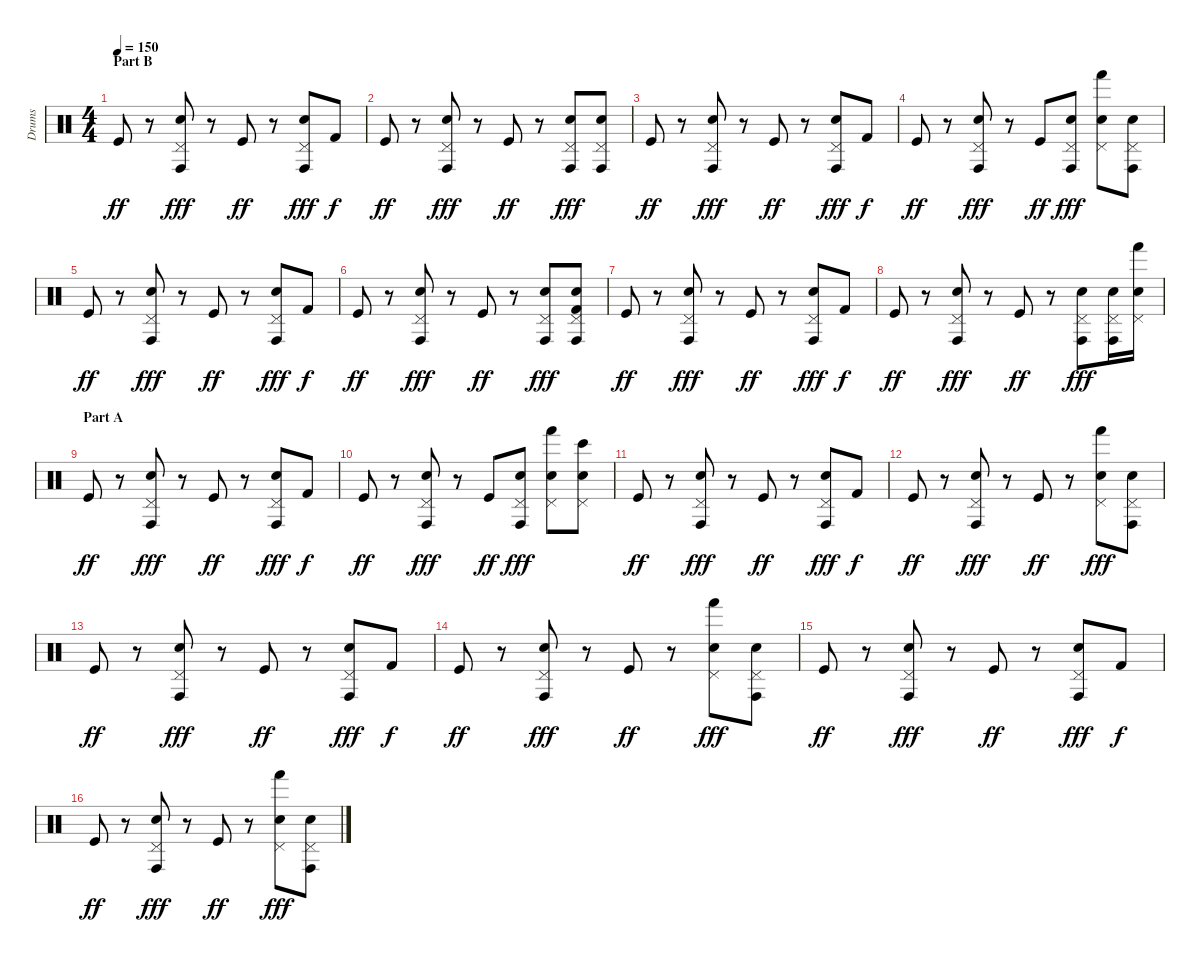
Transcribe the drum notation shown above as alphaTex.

\track ("Drums" "Drums") {instrument percussion}
\staff {score}
\articulation defaults
\ts (4 4)
\section ("" "Part B")
\tempo 150
\clef neutral
\ks c "Kick (hit)".8{dy ff}
r.8 ("Pedal Hi-Hat (hit)" "Conga high (hit)" "Electric Snare (hit)").8{dy fff} r.8 "Kick (hit)".8{dy ff} r.8 ("Pedal Hi-Hat (hit)" "Conga high (hit)" "Electric Snare (hit)").8{dy fff} "Kick (hit) 2".8{dy f} |
"Kick (hit)".8{dy ff} r.8 ("Pedal Hi-Hat (hit)" "Conga high (hit)" "Electric Snare (hit)").8{dy fff} r.8 "Kick (hit)".8{dy ff} r.8 ("Pedal Hi-Hat (hit)" "Conga high (hit)" "Electric Snare (hit)").8{dy fff} ("Pedal Hi-Hat (hit)" "Conga high (hit)" "Electric Snare (hit)").8 |
"Kick (hit)".8{dy ff} r.8 ("Pedal Hi-Hat (hit)" "Conga high (hit)" "Electric Snare (hit)").8{dy fff} r.8 "Kick (hit)".8{dy ff} r.8 ("Pedal Hi-Hat (hit)" "Conga high (hit)" "Electric Snare (hit)").8{dy fff} "Kick (hit) 2".8{dy f} |
"Kick (hit)".8{dy ff} r.8 ("Pedal Hi-Hat (hit)" "Conga high (hit)" "Electric Snare (hit)").8{dy fff} r.8 "Kick (hit)".8{dy ff} ("Pedal Hi-Hat (hit)" "Conga high (hit)" "Electric Snare (hit)").8{dy fff} ("Pedal Hi-Hat (hit)" "Hand (hit)" "Electric Snare (hit)").8 ("Pedal Hi-Hat (hit)" "Conga high (hit)" "Electric Snare (hit)").8 |
"Kick (hit)".8{dy ff} r.8 ("Pedal Hi-Hat (hit)" "Conga high (hit)" "Electric Snare (hit)").8{dy fff} r.8 "Kick (hit)".8{dy ff} r.8 ("Pedal Hi-Hat (hit)" "Conga high (hit)" "Electric Snare (hit)").8{dy fff} "Kick (hit) 2".8{dy f} |
"Kick (hit)".8{dy ff} r.8 ("Pedal Hi-Hat (hit)" "Conga high (hit)" "Electric Snare (hit)").8{dy fff} r.8 "Kick (hit)".8{dy ff} r.8 ("Pedal Hi-Hat (hit)" "Conga high (hit)" "Electric Snare (hit)").8{dy fff} ("Pedal Hi-Hat (hit)" "Conga high (hit)" "Electric Snare (hit)" "Kick (hit) 2").8 |
"Kick (hit)".8{dy ff} r.8 ("Pedal Hi-Hat (hit)" "Conga high (hit)" "Electric Snare (hit)").8{dy fff} r.8 "Kick (hit)".8{dy ff} r.8 ("Pedal Hi-Hat (hit)" "Conga high (hit)" "Electric Snare (hit)").8{dy fff} "Kick (hit) 2".8{dy f} |
"Kick (hit)".8{dy ff} r.8 ("Pedal Hi-Hat (hit)" "Conga high (hit)" "Electric Snare (hit)").8{dy fff} r.8 "Kick (hit)".8{dy ff} r.8 ("Pedal Hi-Hat (hit)" "Conga high (hit)" "Electric Snare (hit)").8{dy fff} ("Pedal Hi-Hat (hit)" "Conga high (hit)" "Electric Snare (hit)").16 ("Pedal Hi-Hat (hit)" "Hand (hit)" "Electric Snare (hit)").16 |
\section ("" "Part A")
"Kick (hit)".8{dy ff} r.8 ("Pedal Hi-Hat (hit)" "Conga high (hit)" "Electric Snare (hit)").8{dy fff} r.8 "Kick (hit)".8{dy ff} r.8 ("Pedal Hi-Hat (hit)" "Conga high (hit)" "Electric Snare (hit)").8{dy fff} "Kick (hit) 2".8{dy f} |
"Kick (hit)".8{dy ff} r.8 ("Pedal Hi-Hat (hit)" "Conga high (hit)" "Electric Snare (hit)").8{dy fff} r.8 "Kick (hit)".8{dy ff} ("Pedal Hi-Hat (hit)" "Conga high (hit)" "Electric Snare (hit)").8{dy fff} ("Pedal Hi-Hat (hit)" "Hand (hit)" "Electric Snare (hit)").8 ("Pedal Hi-Hat (hit)" "Bongo High (hit)" "Electric Snare (hit)").8 |
"Kick (hit)".8{dy ff} r.8 ("Pedal Hi-Hat (hit)" "Conga high (hit)" "Electric Snare (hit)").8{dy fff} r.8 "Kick (hit)".8{dy ff} r.8 ("Pedal Hi-Hat (hit)" "Conga high (hit)" "Electric Snare (hit)").8{dy fff} "Kick (hit) 2".8{dy f} |
"Kick (hit)".8{dy ff} r.8 ("Pedal Hi-Hat (hit)" "Conga high (hit)" "Electric Snare (hit)").8{dy fff} r.8 "Kick (hit)".8{dy ff} r.8 ("Pedal Hi-Hat (hit)" "Hand (hit)" "Electric Snare (hit)").8{dy fff} ("Pedal Hi-Hat (hit)" "Conga high (hit)" "Electric Snare (hit)").8 |
"Kick (hit)".8{dy ff} r.8 ("Pedal Hi-Hat (hit)" "Conga high (hit)" "Electric Snare (hit)").8{dy fff} r.8 "Kick (hit)".8{dy ff} r.8 ("Pedal Hi-Hat (hit)" "Conga high (hit)" "Electric Snare (hit)").8{dy fff} "Kick (hit) 2".8{dy f} |
"Kick (hit)".8{dy ff} r.8 ("Pedal Hi-Hat (hit)" "Conga high (hit)" "Electric Snare (hit)").8{dy fff} r.8 "Kick (hit)".8{dy ff} r.8 ("Pedal Hi-Hat (hit)" "Hand (hit)" "Electric Snare (hit)").8{dy fff} ("Pedal Hi-Hat (hit)" "Conga high (hit)" "Electric Snare (hit)").8 |
"Kick (hit)".8{dy ff} r.8 ("Pedal Hi-Hat (hit)" "Conga high (hit)" "Electric Snare (hit)").8{dy fff} r.8 "Kick (hit)".8{dy ff} r.8 ("Pedal Hi-Hat (hit)" "Conga high (hit)" "Electric Snare (hit)").8{dy fff} "Kick (hit) 2".8{dy f} |
"Kick (hit)".8{dy ff} r.8 ("Pedal Hi-Hat (hit)" "Conga high (hit)" "Electric Snare (hit)").8{dy fff} r.8 "Kick (hit)".8{dy ff} r.8 ("Pedal Hi-Hat (hit)" "Hand (hit)" "Electric Snare (hit)").8{dy fff} ("Pedal Hi-Hat (hit)" "Conga high (hit)" "Electric Snare (hit)").8
